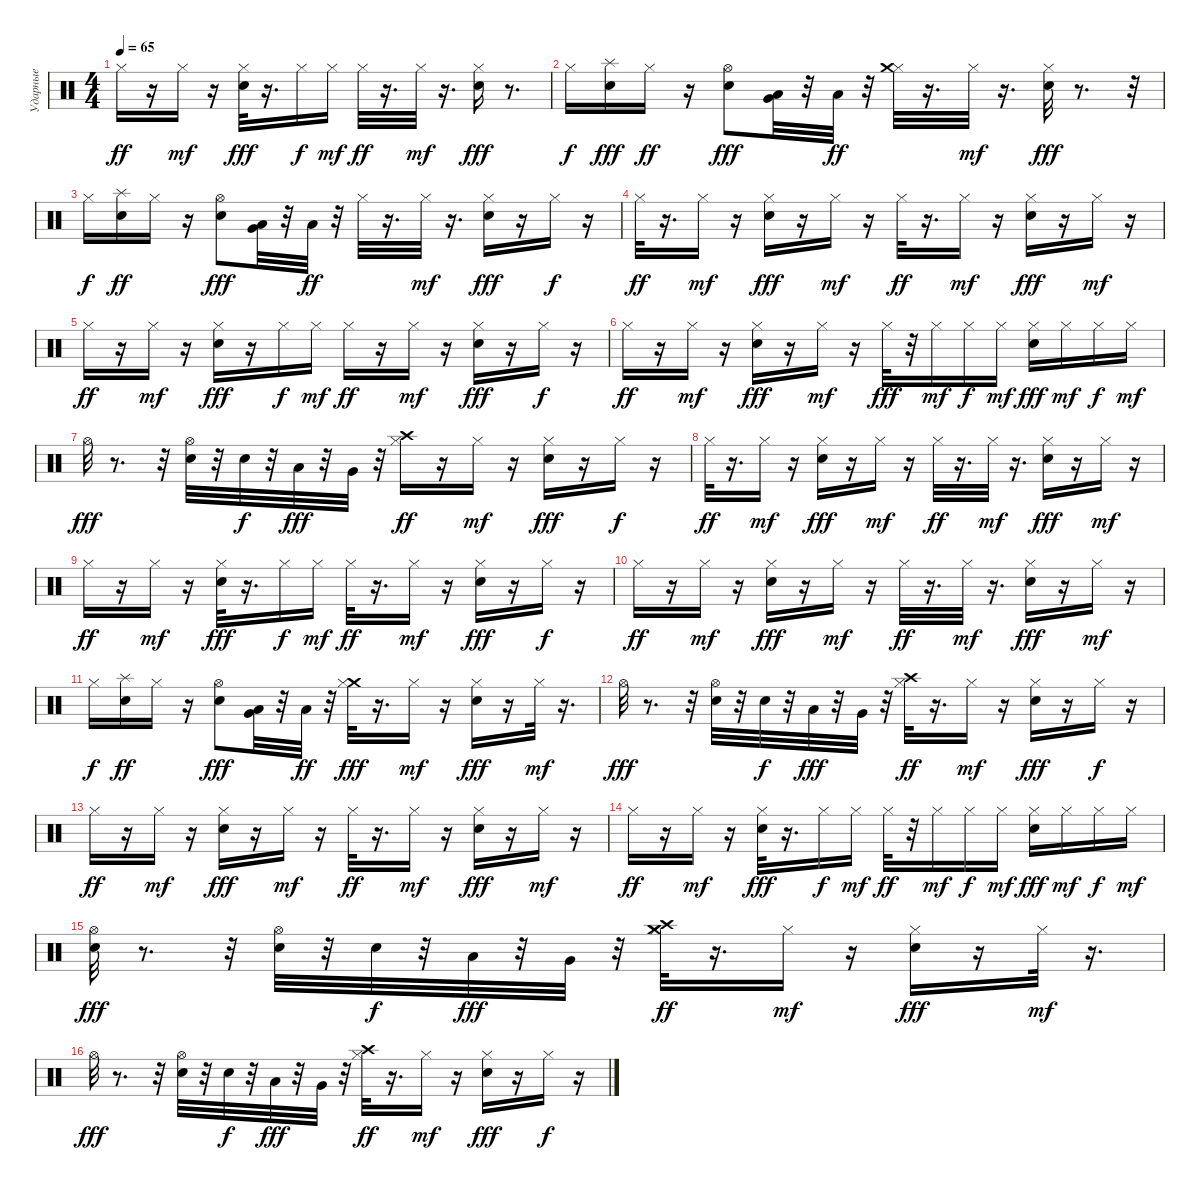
\track ("Ударные" "Ударные") {instrument percussion}
\staff {score}
\articulation defaults
\ts (4 4)
\tempo 65
\clef neutral
\ks c "Hi-Hat (closed)".16{dy ff}
r.16 "Hi-Hat (closed)".16{dy mf} r.16 ("Hi-Hat (closed)" "Snare (hit) 2").32{dy fff} r.16{d} "Hi-Hat (closed)".16{dy f} "Hi-Hat (closed)".16{dy mf} "Hi-Hat (closed)".32{dy ff} r.16{d} "Hi-Hat (closed)".32{dy mf} r.16{d} ("Snare (hit) 2" "Hi-Hat (closed)").16{dy fff} r.8{d} |
"Hi-Hat (closed)".16{dy f} ("Splash (hit)" "Snare (hit) 2").16{dy fff} "Hi-Hat (closed)".16{dy ff} r.16 ("Snare (hit) 2" "Hi-Hat (open)").8{dy fff} ("Very Low Tom (hit)" "Low Tom (hit)").32 r.32 "Low Floor Tom (hit)".32{dy ff} r.32 ("Hi-Hat (closed)" "Crash medium (hit)").32 r.16{d} "Hi-Hat (closed)".32{dy mf} r.16{d} ("Snare (hit) 2" "Hi-Hat (closed)").32{dy fff} r.8{d} r.32 |
"Hi-Hat (closed)".16{dy f} ("Snare (hit) 2" "Splash (hit)").16{dy ff} "Hi-Hat (closed)".16 r.16 ("Snare (hit) 2" "Hi-Hat (open)").8{dy fff} ("Low Tom (hit)" "Very Low Tom (hit)").32 r.32 "Low Floor Tom (hit)".32{dy ff} r.32 "Hi-Hat (closed)".32 r.16{d} "Hi-Hat (closed)".32{dy mf} r.16{d} ("Hi-Hat (closed)" "Snare (hit) 2").16{dy fff} r.16 "Hi-Hat (closed)".16{dy f} r.16 |
"Hi-Hat (closed)".32{dy ff} r.16{d} "Hi-Hat (closed)".16{dy mf} r.16 ("Hi-Hat (closed)" "Snare (hit) 2").16{dy fff} r.16 "Hi-Hat (closed)".16{dy mf} r.16 "Hi-Hat (closed)".32{dy ff} r.16{d} "Hi-Hat (closed)".16{dy mf} r.16 ("Hi-Hat (closed)" "Snare (hit) 2").16{dy fff} r.16 "Hi-Hat (closed)".16{dy mf} r.16 |
"Hi-Hat (closed)".16{dy ff} r.16 "Hi-Hat (closed)".16{dy mf} r.16 ("Hi-Hat (closed)" "Snare (hit) 2").16{dy fff} r.16 "Hi-Hat (closed)".16{dy f} "Hi-Hat (closed)".16{dy mf} "Hi-Hat (closed)".16{dy ff} r.16 "Hi-Hat (closed)".16{dy mf} r.16 ("Hi-Hat (closed)" "Snare (hit) 2").16{dy fff} r.16 "Hi-Hat (closed)".16{dy f} r.16 |
"Hi-Hat (closed)".16{dy ff} r.16 "Hi-Hat (closed)".16{dy mf} r.16 ("Hi-Hat (closed)" "Snare (hit) 2").16{dy fff} r.16 "Hi-Hat (closed)".16{dy mf} r.16 "Hi-Hat (closed)".32{dy fff} r.32 "Hi-Hat (closed)".16{dy mf} "Hi-Hat (closed)".16{dy f} "Hi-Hat (closed)".16{dy mf} ("Snare (hit) 2" "Hi-Hat (closed)").16{dy fff} "Hi-Hat (closed)".16{dy mf} "Hi-Hat (closed)".16{dy f} "Hi-Hat (closed)".16{dy mf} |
"Hi-Hat (open)".32{dy fff} r.8{d} r.32 ("Snare (hit) 2" "Hi-Hat (open)").32 r.32 "Snare (hit) 2".32{dy f} r.32 "Low Tom (hit)".32{dy fff} r.32 "Very Low Tom (hit)".32 r.32 ("Hi-Hat (closed)" "Crash high (hit)").16{dy ff} r.16 "Hi-Hat (closed)".16{dy mf} r.16 ("Hi-Hat (closed)" "Snare (hit) 2").16{dy fff} r.16 "Hi-Hat (closed)".16{dy f} r.16 |
"Hi-Hat (closed)".32{dy ff} r.16{d} "Hi-Hat (closed)".16{dy mf} r.16 ("Snare (hit) 2" "Hi-Hat (closed)").16{dy fff} r.16 "Hi-Hat (closed)".16{dy mf} r.16 "Hi-Hat (closed)".32{dy ff} r.16{d} "Hi-Hat (closed)".32{dy mf} r.16{d} ("Snare (hit) 2" "Hi-Hat (closed)").16{dy fff} r.16 "Hi-Hat (closed)".16{dy mf} r.16 |
"Hi-Hat (closed)".16{dy ff} r.16 "Hi-Hat (closed)".16{dy mf} r.16 ("Hi-Hat (closed)" "Snare (hit) 2").32{dy fff} r.16{d} "Hi-Hat (closed)".16{dy f} "Hi-Hat (closed)".16{dy mf} "Hi-Hat (closed)".32{dy ff} r.16{d} "Hi-Hat (closed)".16{dy mf} r.16 ("Snare (hit) 2" "Hi-Hat (closed)").16{dy fff} r.16 "Hi-Hat (closed)".16{dy f} r.16 |
"Hi-Hat (closed)".16{dy ff} r.16 "Hi-Hat (closed)".16{dy mf} r.16 ("Hi-Hat (closed)" "Snare (hit) 2").16{dy fff} r.16 "Hi-Hat (closed)".16{dy mf} r.16 "Hi-Hat (closed)".32{dy ff} r.16{d} "Hi-Hat (closed)".32{dy mf} r.16{d} ("Snare (hit) 2" "Hi-Hat (closed)").16{dy fff} r.16 "Hi-Hat (closed)".16{dy mf} r.16 |
"Hi-Hat (closed)".16{dy f} ("Snare (hit) 2" "Splash (hit)").16{dy ff} "Hi-Hat (closed)".16 r.16 ("Snare (hit) 2" "Hi-Hat (open)").8{dy fff} ("Very Low Tom (hit)" "Low Tom (hit)").32 r.32 "Low Floor Tom (hit)".32{dy ff} r.32 ("Crash medium (hit)" "Hi-Hat (closed)").32{dy fff} r.16{d} "Hi-Hat (closed)".16{dy mf} r.16 ("Hi-Hat (closed)" "Snare (hit) 2").16{dy fff} r.16 "Hi-Hat (closed)".32{dy mf} r.16{d} |
"Hi-Hat (open)".32{dy fff} r.8{d} r.32 ("Snare (hit) 2" "Hi-Hat (open)").32 r.32 "Snare (hit) 2".32{dy f} r.32 "Low Tom (hit)".32{dy fff} r.32 "Very Low Tom (hit)".32 r.32 ("Hi-Hat (closed)" "Crash high (hit)").32{dy ff} r.16{d} "Hi-Hat (closed)".16{dy mf} r.16 ("Hi-Hat (closed)" "Snare (hit) 2").16{dy fff} r.16 "Hi-Hat (closed)".16{dy f} r.16 |
"Hi-Hat (closed)".16{dy ff} r.16 "Hi-Hat (closed)".16{dy mf} r.16 ("Hi-Hat (closed)" "Snare (hit) 2").16{dy fff} r.16 "Hi-Hat (closed)".16{dy mf} r.16 "Hi-Hat (closed)".32{dy ff} r.16{d} "Hi-Hat (closed)".16{dy mf} r.16 ("Hi-Hat (closed)" "Snare (hit) 2").16{dy fff} r.16 "Hi-Hat (closed)".16{dy mf} r.16 |
"Hi-Hat (closed)".16{dy ff} r.16 "Hi-Hat (closed)".16{dy mf} r.16 ("Hi-Hat (closed)" "Snare (hit) 2").32{dy fff} r.16{d} "Hi-Hat (closed)".16{dy f} "Hi-Hat (closed)".16{dy mf} "Hi-Hat (closed)".32{dy ff} r.32 "Hi-Hat (closed)".16{dy mf} "Hi-Hat (closed)".16{dy f} "Hi-Hat (closed)".16{dy mf} ("Snare (hit) 2" "Hi-Hat (closed)").16{dy fff} "Hi-Hat (closed)".16{dy mf} "Hi-Hat (closed)".16{dy f} "Hi-Hat (closed)".16{dy mf} |
("Hi-Hat (open)" "Snare (hit) 2").32{dy fff} r.8{d} r.32 ("Hi-Hat (open)" "Snare (hit) 2").32 r.32 "Snare (hit) 2".32{dy f} r.32 "Low Tom (hit)".32{dy fff} r.32 "Very Low Tom (hit)".32 r.32 ("Hi-Hat (closed)" "Crash medium (hit)" "Crash high (hit)").32{dy ff} r.16{d} "Hi-Hat (closed)".16{dy mf} r.16 ("Snare (hit) 2" "Hi-Hat (closed)").16{dy fff} r.16 "Hi-Hat (closed)".32{dy mf} r.16{d} |
"Hi-Hat (open)".32{dy fff} r.8{d} r.32 ("Snare (hit) 2" "Hi-Hat (open)").32 r.32 "Snare (hit) 2".32{dy f} r.32 "Low Tom (hit)".32{dy fff} r.32 "Very Low Tom (hit)".32 r.32 ("Crash high (hit)" "Hi-Hat (closed)").32{dy ff} r.16{d} "Hi-Hat (closed)".16{dy mf} r.16 ("Hi-Hat (closed)" "Snare (hit) 2").16{dy fff} r.16 "Hi-Hat (closed)".16{dy f} r.16
